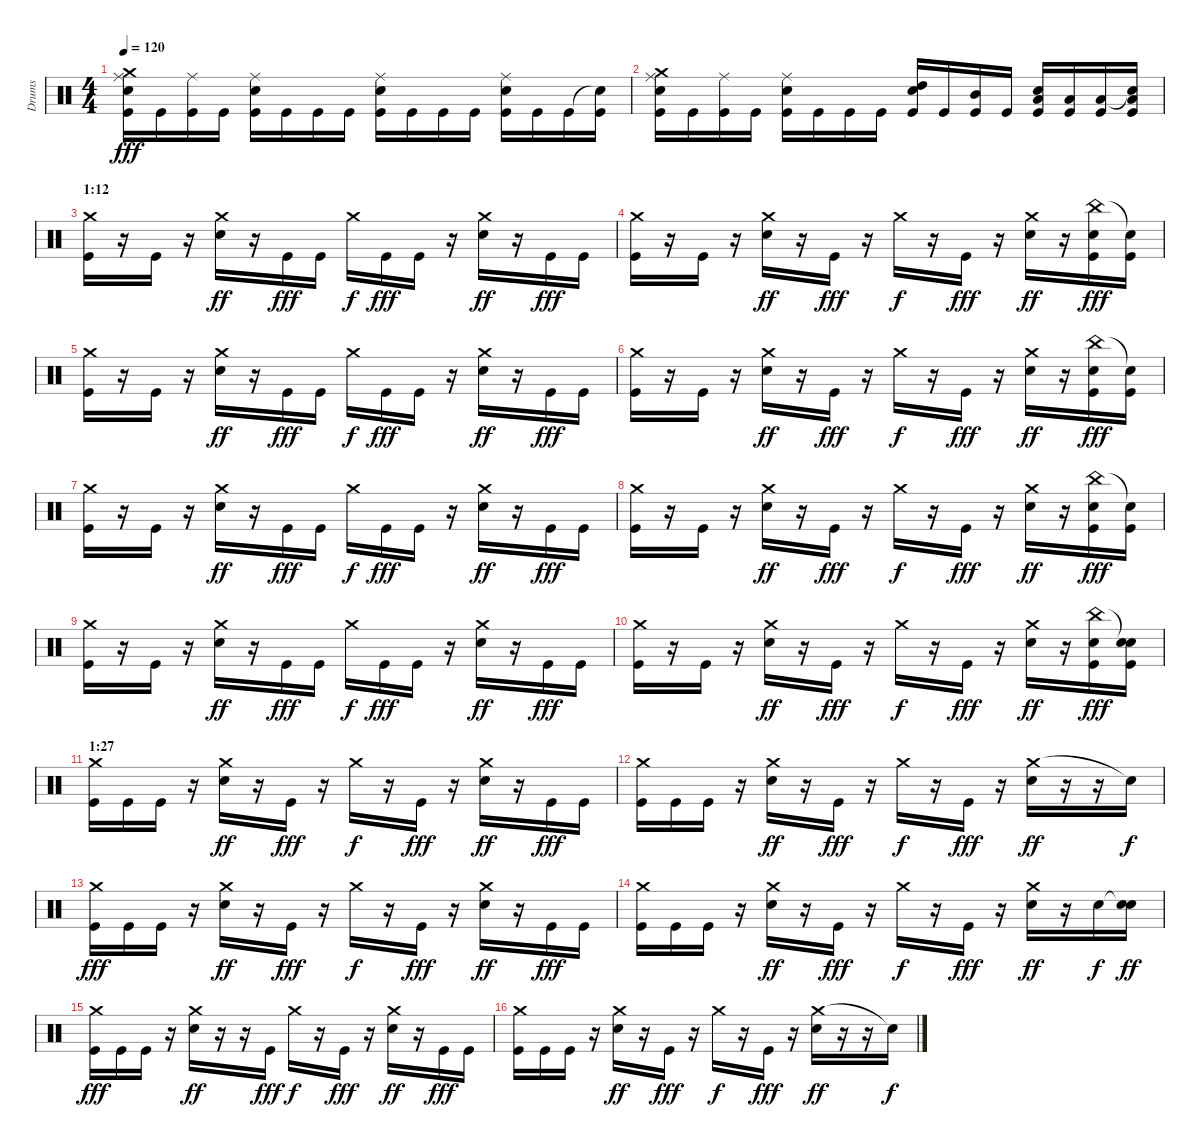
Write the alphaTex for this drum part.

\track ("Drums" "Drums") {instrument percussion}
\staff {score}
\articulation defaults
\ts (4 4)
\tempo 120
\clef neutral
\ks c
("Ride (middle)" "Crash medium (hit)" "Snare (hit) 2" "Kick (hit)").16{dy fff} "Kick (hit)".16 ("Ride (middle)" "Kick (hit)").16 "Kick (hit)".16 ("Ride (middle)" "Snare (hit) 2" "Kick (hit)").16 "Kick (hit)".16 "Kick (hit)".16 "Kick (hit)".16 ("Ride (middle)" "Snare (hit) 2" "Kick (hit)").16 "Kick (hit)".16 "Kick (hit)".16 "Kick (hit)".16 ("Ride (middle)" "Snare (hit) 2" "Kick (hit)").16 "Kick (hit)".16 "Kick (hit)".16 ("Snare (hit)"{t} "Kick (hit)").16 |
("Ride (middle)" "Crash medium (hit)" "Snare (hit) 2" "Kick (hit)").16 "Kick (hit)".16 ("Ride (middle)" "Kick (hit)").16 "Kick (hit)".16 ("Ride (middle)" "Snare (hit) 2" "Kick (hit)").16 "Kick (hit)".16 "Kick (hit)".16 "Kick (hit)".16 ("High Tom (hit)" "Snare (hit) 2" "Kick (hit)").16 "Kick (hit)".16 ("Mid Tom (hit)" "Kick (hit)").16 "Kick (hit)".16 ("Low Tom (hit)" "Snare (hit) 2" "Kick (hit)").16 ("Low Tom (hit)" "Kick (hit)").16 ("Low Floor Tom (hit)" "Kick (hit)").16 ("Snare (hit)"{t} "Low Floor Tom (hit)" "Kick (hit)").16 |
\section ("" "1:12")
("Crash medium (hit)" "Kick (hit)").16 r.16 "Kick (hit)".16 r.16 ("Crash medium (hit)" "Electric Snare (hit)").16{dy ff} r.16 "Kick (hit)".16{dy fff} "Kick (hit)".16 "Crash medium (hit)".16{dy f} "Kick (hit)".16{dy fff} "Kick (hit)".16 r.16 ("Crash medium (hit)" "Electric Snare (hit)").16{dy ff} r.16 "Kick (hit)".16{dy fff} "Kick (hit)".16 |
("Crash medium (hit)" "Kick (hit)").16 r.16 "Kick (hit)".16 r.16 ("Crash medium (hit)" "Electric Snare (hit)").16{dy ff} r.16 "Kick (hit)".16{dy fff} r.16 "Crash medium (hit)".16{dy f} r.16 "Kick (hit)".16{dy fff} r.16 ("Crash medium (hit)" "Electric Snare (hit)").16{dy ff} r.16 ("China (hit)" "Electric Snare (hit)" "Kick (hit)").16{dy fff} ("Snare (hit)"{t} "Kick (hit)").16 |
("Crash medium (hit)" "Kick (hit)").16 r.16 "Kick (hit)".16 r.16 ("Crash medium (hit)" "Electric Snare (hit)").16{dy ff} r.16 "Kick (hit)".16{dy fff} "Kick (hit)".16 "Crash medium (hit)".16{dy f} "Kick (hit)".16{dy fff} "Kick (hit)".16 r.16 ("Crash medium (hit)" "Electric Snare (hit)").16{dy ff} r.16 "Kick (hit)".16{dy fff} "Kick (hit)".16 |
("Crash medium (hit)" "Kick (hit)").16 r.16 "Kick (hit)".16 r.16 ("Crash medium (hit)" "Electric Snare (hit)").16{dy ff} r.16 "Kick (hit)".16{dy fff} r.16 "Crash medium (hit)".16{dy f} r.16 "Kick (hit)".16{dy fff} r.16 ("Crash medium (hit)" "Electric Snare (hit)").16{dy ff} r.16 ("China (hit)" "Electric Snare (hit)" "Kick (hit)").16{dy fff} ("Snare (hit)"{t} "Kick (hit)").16 |
("Crash medium (hit)" "Kick (hit)").16 r.16 "Kick (hit)".16 r.16 ("Crash medium (hit)" "Electric Snare (hit)").16{dy ff} r.16 "Kick (hit)".16{dy fff} "Kick (hit)".16 "Crash medium (hit)".16{dy f} "Kick (hit)".16{dy fff} "Kick (hit)".16 r.16 ("Crash medium (hit)" "Electric Snare (hit)").16{dy ff} r.16 "Kick (hit)".16{dy fff} "Kick (hit)".16 |
("Crash medium (hit)" "Kick (hit)").16 r.16 "Kick (hit)".16 r.16 ("Crash medium (hit)" "Electric Snare (hit)").16{dy ff} r.16 "Kick (hit)".16{dy fff} r.16 "Crash medium (hit)".16{dy f} r.16 "Kick (hit)".16{dy fff} r.16 ("Crash medium (hit)" "Electric Snare (hit)").16{dy ff} r.16 ("China (hit)" "Electric Snare (hit)" "Kick (hit)").16{dy fff} ("Snare (hit)"{t} "Kick (hit)").16 |
("Crash medium (hit)" "Kick (hit)").16 r.16 "Kick (hit)".16 r.16 ("Crash medium (hit)" "Electric Snare (hit)").16{dy ff} r.16 "Kick (hit)".16{dy fff} "Kick (hit)".16 "Crash medium (hit)".16{dy f} "Kick (hit)".16{dy fff} "Kick (hit)".16 r.16 ("Crash medium (hit)" "Electric Snare (hit)").16{dy ff} r.16 "Kick (hit)".16{dy fff} "Kick (hit)".16 |
("Crash medium (hit)" "Kick (hit)").16 r.16 "Kick (hit)".16 r.16 ("Crash medium (hit)" "Electric Snare (hit)").16{dy ff} r.16 "Kick (hit)".16{dy fff} r.16 "Crash medium (hit)".16{dy f} r.16 "Kick (hit)".16{dy fff} r.16 ("Crash medium (hit)" "Electric Snare (hit)").16{dy ff} r.16 ("China (hit)" "Electric Snare (hit)" "Kick (hit)").16{dy fff} ("Snare (hit)"{t} "Electric Snare (hit)" "Kick (hit)").16 |
\section ("" "1:27")
("Crash medium (hit)" "Kick (hit)").16 "Kick (hit)".16 "Kick (hit)".16 r.16 ("Crash medium (hit)" "Electric Snare (hit)").16{dy ff} r.16 "Kick (hit)".16{dy fff} r.16 "Crash medium (hit)".16{dy f} r.16 "Kick (hit)".16{dy fff} r.16 ("Crash medium (hit)" "Electric Snare (hit)").16{dy ff} r.16 "Kick (hit)".16{dy fff} "Kick (hit)".16 |
("Crash medium (hit)" "Kick (hit)").16 "Kick (hit)".16 "Kick (hit)".16 r.16 ("Crash medium (hit)" "Electric Snare (hit)").16{dy ff} r.16 "Kick (hit)".16{dy fff} r.16 "Crash medium (hit)".16{dy f} r.16 "Kick (hit)".16{dy fff} r.16 ("Crash medium (hit)" "Electric Snare (hit)").16{dy ff} r.16 r.16 "Snare (hit)"{t}.16{dy f} |
("Crash medium (hit)" "Kick (hit)").16{dy fff} "Kick (hit)".16 "Kick (hit)".16 r.16 ("Crash medium (hit)" "Electric Snare (hit)").16{dy ff} r.16 "Kick (hit)".16{dy fff} r.16 "Crash medium (hit)".16{dy f} r.16 "Kick (hit)".16{dy fff} r.16 ("Crash medium (hit)" "Electric Snare (hit)").16{dy ff} r.16 "Kick (hit)".16{dy fff} "Kick (hit)".16 |
("Crash medium (hit)" "Kick (hit)").16 "Kick (hit)".16 "Kick (hit)".16 r.16 ("Crash medium (hit)" "Electric Snare (hit)").16{dy ff} r.16 "Kick (hit)".16{dy fff} r.16 "Crash medium (hit)".16{dy f} r.16 "Kick (hit)".16{dy fff} r.16 ("Crash medium (hit)" "Electric Snare (hit)").16{dy ff} r.16 "Electric Snare (hit)".16{dy f} ("Snare (hit)"{t} "Electric Snare (hit)").16{dy ff} |
("Crash medium (hit)" "Kick (hit)").16{dy fff} "Kick (hit)".16 "Kick (hit)".16 r.16 ("Crash medium (hit)" "Electric Snare (hit)").16{dy ff} r.16 r.16 "Kick (hit)".16{dy fff} "Crash medium (hit)".16{dy f} r.16 "Kick (hit)".16{dy fff} r.16 ("Crash medium (hit)" "Electric Snare (hit)").16{dy ff} r.16 "Kick (hit)".16{dy fff} "Kick (hit)".16 |
("Crash medium (hit)" "Kick (hit)").16 "Kick (hit)".16 "Kick (hit)".16 r.16 ("Crash medium (hit)" "Electric Snare (hit)").16{dy ff} r.16 "Kick (hit)".16{dy fff} r.16 "Crash medium (hit)".16{dy f} r.16 "Kick (hit)".16{dy fff} r.16 ("Crash medium (hit)" "Electric Snare (hit)").16{dy ff} r.16 r.16 "Snare (hit)"{t}.16{dy f}
